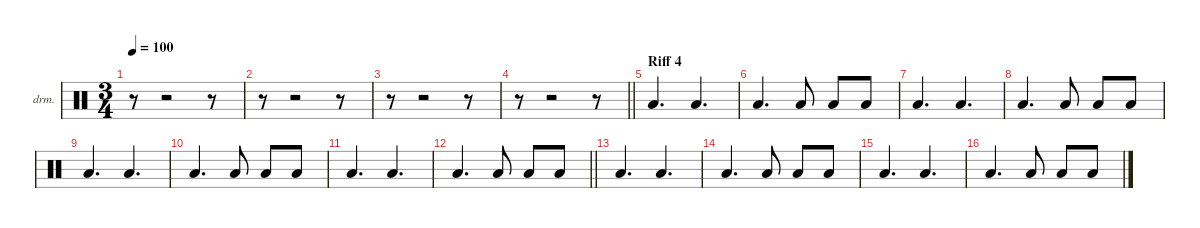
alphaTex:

\defaultSystemsLayout 4
\hideDynamics
\bracketExtendMode nobrackets
\firstSystemTrackNameOrientation horizontal
\otherSystemsTrackNameOrientation horizontal
\track ("Dondervuyscht" "drm.") {instrument percussion}
\staff {score}
\articulation defaults
\ts (3 4)
\tempo 100
\clef neutral
\ks c
r.8{dy f} r.2 r.8 |
r.8 r.2 r.8 |
r.8 r.2 r.8 |
\barLineRight lightlight
r.8 r.2 r.8 |
\section ("" "Riff 4")
"Low Floor Tom (hit)".4{d} "Low Floor Tom (hit)".4{d} |
"Low Floor Tom (hit)".4{d} "Low Floor Tom (hit)".8 "Low Floor Tom (hit)".8 "Low Floor Tom (hit)".8 |
"Low Floor Tom (hit)".4{d} "Low Floor Tom (hit)".4{d} |
"Low Floor Tom (hit)".4{d} "Low Floor Tom (hit)".8 "Low Floor Tom (hit)".8 "Low Floor Tom (hit)".8 |
"Low Floor Tom (hit)".4{d} "Low Floor Tom (hit)".4{d} |
"Low Floor Tom (hit)".4{d} "Low Floor Tom (hit)".8 "Low Floor Tom (hit)".8 "Low Floor Tom (hit)".8 |
"Low Floor Tom (hit)".4{d} "Low Floor Tom (hit)".4{d} |
\barLineRight lightlight "Low Floor Tom (hit)".4{d} "Low Floor Tom (hit)".8 "Low Floor Tom (hit)".8 "Low Floor Tom (hit)".8
|
"Low Floor Tom (hit)".4{d} "Low Floor Tom (hit)".4{d} |
"Low Floor Tom (hit)".4{d} "Low Floor Tom (hit)".8 "Low Floor Tom (hit)".8 "Low Floor Tom (hit)".8 |
"Low Floor Tom (hit)".4{d} "Low Floor Tom (hit)".4{d} |
"Low Floor Tom (hit)".4{d} "Low Floor Tom (hit)".8 "Low Floor Tom (hit)".8 "Low Floor Tom (hit)".8
